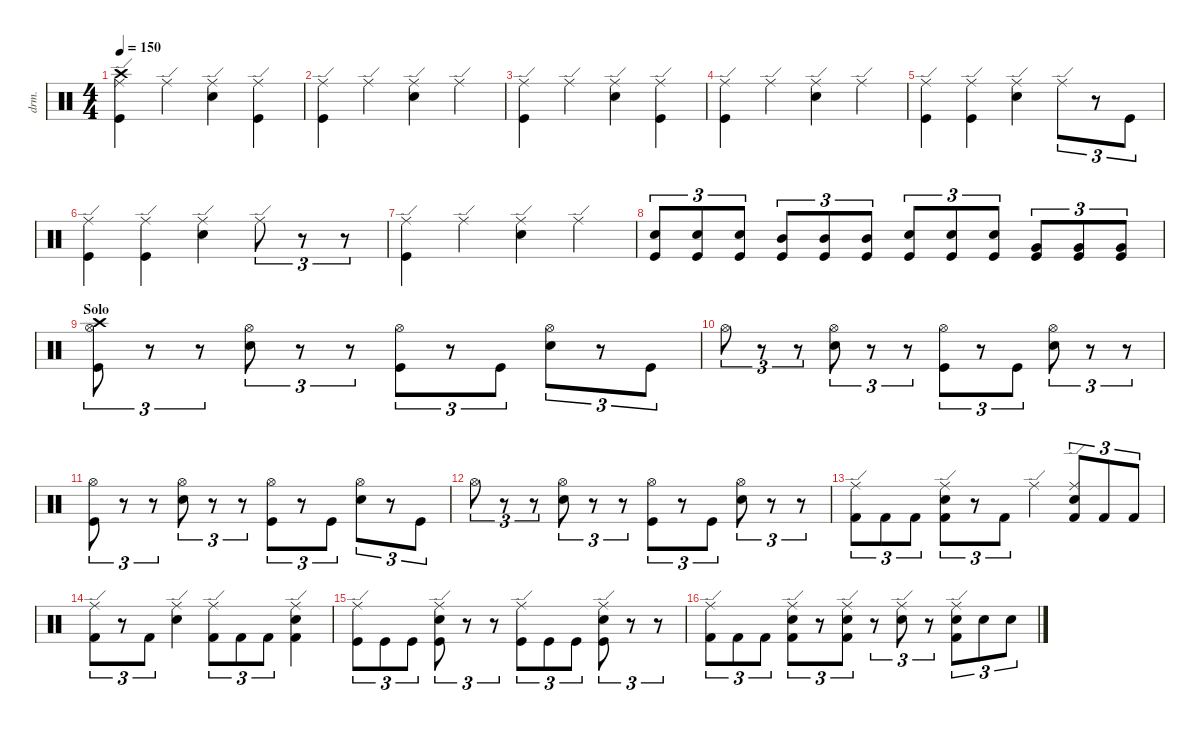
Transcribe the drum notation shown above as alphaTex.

\defaultSystemsLayout 4
\hideDynamics
\bracketExtendMode nobrackets
\otherSystemsTrackNameOrientation horizontal
\track ("Drumkit" "drm.") {solo instrument percussion}
\staff {score}
\articulation defaults
\ts (4 4)
\scale
1.15113
\tempo 150
\accidentals auto
\clef neutral
\ottava regular
\simile none
\ks aminor
("Kick (hit)" "Ride (edge)" "Crash high (hit)").4{dy mf beam Down} "Ride (edge)".4{beam Down} ("Ride (edge)" "Snare (hit) 2").4{beam Down} ("Kick (hit)" "Ride (edge)").4{beam Down} |
\scale
0.973358 ("Kick (hit)" "Ride (edge)").4{beam Down} "Ride (edge)".4{beam Down} ("Ride (edge)" "Snare (hit) 2").4{beam Down} "Ride (edge)".4{beam Down} |
\scale
0.973358 ("Kick (hit)" "Ride (edge)").4{beam Down} "Ride (edge)".4{beam Down} ("Ride (edge)" "Snare (hit) 2").4{beam Down} ("Kick (hit)" "Ride (edge)").4{beam Down} |
\scale
0.973358 ("Kick (hit)" "Ride (edge)").4{beam Down} "Ride (edge)".4{beam Down} ("Ride (edge)" "Snare (hit) 2").4{beam Down} "Ride (edge)".4{beam Down} |
\scale
0.973358 ("Kick (hit)" "Ride (edge)").4{beam Down} ("Ride (edge)" "Kick (hit)").4{beam Down} ("Ride (edge)" "Snare (hit) 2").4{beam Down} "Ride (edge)".8{tu (3 2) beam Down} r.8{tu (3 2) beam Down} "Kick (hit)".8{tu (3 2) beam Down} |
\scale
0.973358 ("Kick (hit)" "Ride (edge)").4{beam Down} ("Ride (edge)" "Kick (hit)").4{beam Down} ("Ride (edge)" "Snare (hit) 2").4{beam Down} "Ride (edge)".8{tu (3 2) beam Down} r.8{tu (3 2) beam Down} r.8{tu (3 2) beam Down} |
\scale
0.973358 ("Kick (hit)" "Ride (edge)").4{beam Down} "Ride (edge)".4{beam Down} ("Ride (edge)" "Snare (hit) 2").4{beam Down} "Ride (edge)".4{beam Down} |
\scale
1.00873 ("Snare (hit) 2" "Kick (hit)").8{tu (3 2) beam Up} ("Snare (hit) 2" "Kick (hit)").8{tu (3 2) beam Up} ("Snare (hit) 2" "Kick (hit)").8{tu (3 2) beam Up} ("Mid Tom (hit)" "Kick (hit)").8{tu (3 2) beam Up} ("Mid Tom (hit)" "Kick (hit)").8{tu (3 2) beam Up} ("Mid Tom (hit)" "Kick (hit)").8{tu (3 2) beam Up} ("Snare (hit) 2" "Kick (hit)").8{tu (3 2) beam Up} ("Snare (hit) 2" "Kick (hit)").8{tu (3 2) beam Up} ("Snare (hit) 2" "Kick (hit)").8{tu (3 2) beam Up} ("Very Low Tom (hit)" "Kick (hit)").8{tu (3 2) beam Up} ("Very Low Tom (hit)" "Kick (hit)").8{tu (3 2) beam Up} ("Very Low Tom (hit)" "Kick (hit)").8{tu (3 2) beam Up} |
\section ("" "Solo")
\scale
1.06666 ("Hi-Hat (open)" "Kick (hit)" "Crash high (hit)").8{tu (3 2) beam Down} r.8{tu (3 2) beam Down} r.8{tu (3 2) beam Down} ("Hi-Hat (open)" "Snare (hit) 2").8{tu (3 2) beam Down} r.8{tu (3 2) beam Down} r.8{tu (3 2) beam Down} ("Hi-Hat (open)" "Kick (hit)").8{tu (3 2) beam Down} r.8{tu (3 2) beam Down} "Kick (hit)".8{tu (3 2) beam Down} ("Hi-Hat (open)" "Snare (hit) 2").8{tu (3 2) beam Down} r.8{tu (3 2) beam Down} "Kick (hit)".8{tu (3 2) beam Down} |
\scale
0.977779 "Hi-Hat (open)".8{tu (3 2) beam Down} r.8{tu (3 2) beam Down} r.8{tu (3 2) beam Down} ("Hi-Hat (open)" "Snare (hit) 2").8{tu (3 2) beam Down} r.8{tu (3 2) beam Down} r.8{tu (3 2) beam Down} ("Hi-Hat (open)" "Kick (hit)").8{tu (3 2) beam Down} r.8{tu (3 2) beam Down} "Kick (hit)".8{tu (3 2) beam Down} ("Hi-Hat (open)" "Snare (hit) 2").8{tu (3 2) beam Down} r.8{tu (3 2) beam Down} r.8{tu (3 2) beam Down} |
\scale
0.977779 ("Hi-Hat (open)" "Kick (hit)").8{tu (3 2) beam Down} r.8{tu (3 2) beam Down} r.8{tu (3 2) beam Down} ("Hi-Hat (open)" "Snare (hit) 2").8{tu (3 2) beam Down} r.8{tu (3 2) beam Down} r.8{tu (3 2) beam Down} ("Hi-Hat (open)" "Kick (hit)").8{tu (3 2) beam Down} r.8{tu (3 2) beam Down} "Kick (hit)".8{tu (3 2) beam Down} ("Hi-Hat (open)" "Snare (hit) 2").8{tu (3 2) beam Down} r.8{tu (3 2) beam Down} "Kick (hit)".8{tu (3 2) beam Down} |
\scale
0.977779 "Hi-Hat (open)".8{tu (3 2) beam Down} r.8{tu (3 2) beam Down} r.8{tu (3 2) beam Down} ("Hi-Hat (open)" "Snare (hit) 2").8{tu (3 2) beam Down} r.8{tu (3 2) beam Down} r.8{tu (3 2) beam Down} ("Hi-Hat (open)" "Kick (hit)").8{tu (3 2) beam Down} r.8{tu (3 2) beam Down} "Kick (hit)".8{tu (3 2) beam Down} ("Hi-Hat (open)" "Snare (hit) 2").8{tu (3 2) beam Down} r.8{tu (3 2) beam Down} r.8{tu (3 2) beam Down} |
\scale
1.06224 ("Kick (hit) 2" "Ride (edge)").8{tu (3 2) beam Down} "Kick (hit) 2".8{tu (3 2) beam Down} "Kick (hit) 2".8{tu (3 2) beam Down} ("Kick (hit) 2" "Ride (edge)" "Snare (hit) 2").8{tu (3 2) beam Down} r.8{tu (3 2) beam Down} "Kick (hit) 2".8{tu (3 2) beam Down} "Ride (edge)".4{beam Down} ("Kick (hit) 2" "Ride (edge)" "Snare (hit) 2").8{tu (3 2) beam Up} "Kick (hit) 2".8{tu (3 2) beam Up} "Kick (hit) 2".8{tu (3 2) beam Up} |
\scale
0.973358 ("Kick (hit) 2" "Ride (edge)").8{tu (3 2) beam Down} r.8{tu (3 2) beam Down} "Kick (hit) 2".8{tu (3 2) beam Down} ("Ride (edge)" "Snare (hit) 2").4{beam Down} ("Kick (hit) 2" "Ride (edge)").8{tu (3 2) beam Down} "Kick (hit) 2".8{tu (3 2) beam Down} "Kick (hit) 2".8{tu (3 2) beam Down} ("Ride (edge)" "Snare (hit) 2" "Kick (hit) 2").4{beam Down} |
\scale
0.973358 ("Kick (hit)" "Ride (edge)").8{tu (3 2) beam Down} "Kick (hit)".8{tu (3 2) beam Down} "Kick (hit)".8{tu (3 2) beam Down} ("Kick (hit)" "Snare (hit) 2" "Ride (edge)").8{tu (3 2) beam Down} r.8{tu (3 2) beam Down} r.8{tu (3 2) beam Down} ("Kick (hit)" "Ride (edge)").8{tu (3 2) beam Down} "Kick (hit)".8{tu (3 2) beam Down} "Kick (hit)".8{tu (3 2) beam Down} ("Kick (hit)" "Snare (hit) 2" "Ride (edge)").8{tu (3 2) beam Down} r.8{tu (3 2) beam Down} r.8{tu (3 2) beam Down} |
\scale
0.991042 ("Kick (hit) 2" "Ride (edge)").8{tu (3 2) beam Down} "Kick (hit) 2".8{tu (3 2) beam Down} "Kick (hit) 2".8{tu (3 2) beam Down} ("Kick (hit) 2" "Snare (hit) 2" "Ride (edge)").8{tu (3 2) beam Down} r.8{tu (3 2) beam Down} ("Kick (hit) 2" "Snare (hit) 2" "Ride (edge)").8{tu (3 2) beam Down} r.8{tu (3 2) beam Down} ("Snare (hit) 2" "Ride (edge)").8{tu (3 2) beam Down} r.8{tu (3 2) beam Down} ("Snare (hit) 2" "Kick (hit) 2" "Ride (edge)").8{tu (3 2) beam Down} "Snare (hit) 2".8{tu (3 2) beam Down} "Snare (hit) 2".8{tu (3 2) beam Down}
